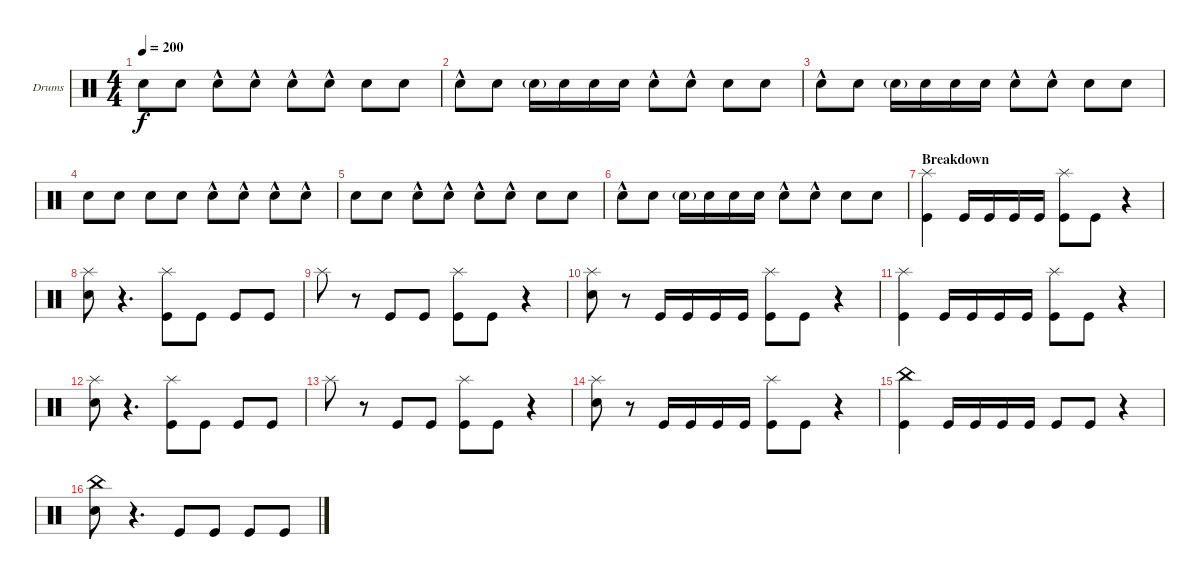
\defaultSystemsLayout 4
\bracketExtendMode groupsimilarinstruments
\firstSystemTrackNameOrientation horizontal
\otherSystemsTrackNameOrientation horizontal
\track ("Drumkit" "Drums") {instrument percussion}
\staff {score}
\articulation defaults
\ts (4 4)
\tempo 200
\clef neutral
\ks c "Snare (hit) 2".8{dy f} "Snare (hit) 2".8 "Snare (hit) 2"{hac}.8 "Snare (hit) 2"{hac}.8 "Snare (hit) 2"{hac}.8 "Snare (hit) 2"{hac}.8 "Snare (hit) 2".8 "Snare (hit) 2".8
|
"Snare (hit) 2"{hac}.8 "Snare (hit) 2".8 "Snare (hit) 2"{g}.16 "Snare (hit) 2".16 "Snare (hit) 2".16 "Snare (hit) 2".16 "Snare (hit) 2"{hac}.8 "Snare (hit) 2"{hac}.8 "Snare (hit) 2".8 "Snare (hit) 2".8 |
"Snare (hit) 2"{hac}.8 "Snare (hit) 2".8 "Snare (hit) 2"{g}.16 "Snare (hit) 2".16 "Snare (hit) 2".16 "Snare (hit) 2".16 "Snare (hit) 2"{hac}.8 "Snare (hit) 2"{hac}.8 "Snare (hit) 2".8 "Snare (hit) 2".8 |
"Snare (hit) 2".8 "Snare (hit) 2".8 "Snare (hit) 2".8 "Snare (hit) 2".8 "Snare (hit) 2"{hac}.8 "Snare (hit) 2"{hac}.8 "Snare (hit) 2"{hac}.8 "Snare (hit) 2"{hac}.8 |
"Snare (hit) 2".8 "Snare (hit) 2".8 "Snare (hit) 2"{hac}.8 "Snare (hit) 2"{hac}.8 "Snare (hit) 2"{hac}.8 "Snare (hit) 2"{hac}.8 "Snare (hit) 2".8 "Snare (hit) 2".8 |
"Snare (hit) 2"{hac}.8 "Snare (hit) 2".8 "Snare (hit) 2"{g}.16 "Snare (hit) 2".16 "Snare (hit) 2".16 "Snare (hit) 2".16 "Snare (hit) 2"{hac}.8 "Snare (hit) 2"{hac}.8 "Snare (hit) 2".8 "Snare (hit) 2".8 |
\section ("" "Breakdown")
("Kick (hit)" "Splash (hit)").4 "Kick (hit)".16 "Kick (hit)".16 "Kick (hit)".16 "Kick (hit)".16 ("Kick (hit)" "Splash (hit)").8 "Kick (hit)".8 r.4 |
("Snare (hit) 2" "Splash (hit)").8 r.4{d} ("Kick (hit)" "Splash (hit)").8 "Kick (hit)".8 "Kick (hit)".8 "Kick (hit)".8 |
"Splash (hit)".8 r.8 "Kick (hit)".8 "Kick (hit)".8 ("Kick (hit)" "Splash (hit)").8 "Kick (hit)".8 r.4 |
("Splash (hit)" "Snare (hit) 2").8 r.8 "Kick (hit)".16 "Kick (hit)".16 "Kick (hit)".16 "Kick (hit)".16 ("Kick (hit)" "Splash (hit)").8 "Kick (hit)".8 r.4 |
("Kick (hit)" "Splash (hit)").4 "Kick (hit)".16 "Kick (hit)".16 "Kick (hit)".16 "Kick (hit)".16 ("Kick (hit)" "Splash (hit)").8 "Kick (hit)".8 r.4 |
("Snare (hit) 2" "Splash (hit)").8 r.4{d} ("Kick (hit)" "Splash (hit)").8 "Kick (hit)".8 "Kick (hit)".8 "Kick (hit)".8 |
"Splash (hit)".8 r.8 "Kick (hit)".8 "Kick (hit)".8 ("Kick (hit)" "Splash (hit)").8 "Kick (hit)".8 r.4 |
("Splash (hit)" "Snare (hit) 2").8 r.8 "Kick (hit)".16 "Kick (hit)".16 "Kick (hit)".16 "Kick (hit)".16 ("Kick (hit)" "Splash (hit)").8 "Kick (hit)".8 r.4 |
("Kick (hit)" "China (hit)").4 "Kick (hit)".16 "Kick (hit)".16 "Kick (hit)".16 "Kick (hit)".16 "Kick (hit)".8 "Kick (hit)".8 r.4 |
("Snare (hit) 2" "China (hit)").8 r.4{d} "Kick (hit)".8 "Kick (hit)".8 "Kick (hit)".8 "Kick (hit)".8
